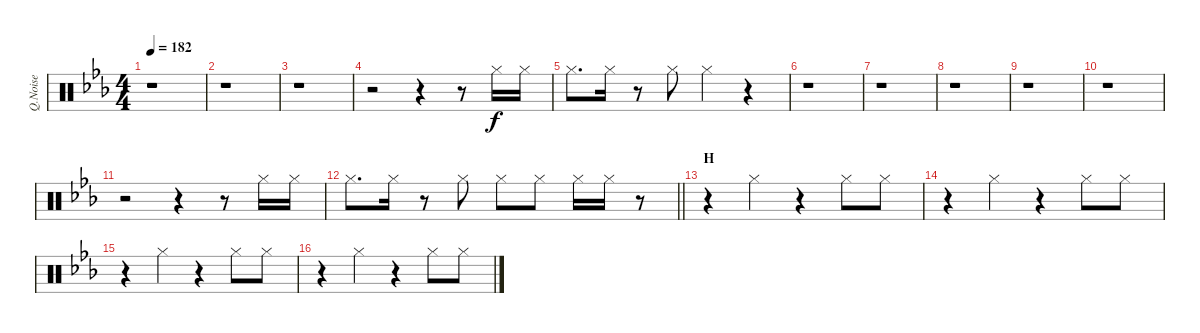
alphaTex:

\track ("Q.Noise" "Q.Noise") {instrument percussion}
\staff {score}
\articulation defaults
\ts (4 4)
\tempo 182
\clef neutral
\ks eb
r.1{dy f} |
r.1 |
r.1 |
r.2 r.4 r.8 "Hi-Hat (closed)".16 "Hi-Hat (closed)".16 |
"Hi-Hat (closed)".8{d} "Hi-Hat (closed)".16 r.8 "Hi-Hat (closed)".8 "Hi-Hat (closed)".4 r.4 |
r.1 |
r.1 |
r.1 |
r.1 |
r.1 |
r.2 r.4 r.8 "Hi-Hat (closed)".16 "Hi-Hat (closed)".16 |
\barLineRight lightlight "Hi-Hat (closed)".8{d} "Hi-Hat (closed)".16
r.8 "Hi-Hat (closed)".8 "Hi-Hat (closed)".8 "Hi-Hat (closed)".8 "Hi-Hat (closed)".16 "Hi-Hat (closed)".16 r.8 |
\section ("" "H")
r.4 "Hi-Hat (closed)".4 r.4 "Hi-Hat (closed)".8 "Hi-Hat (closed)".8 |
r.4 "Hi-Hat (closed)".4 r.4 "Hi-Hat (closed)".8 "Hi-Hat (closed)".8 |
r.4 "Hi-Hat (closed)".4 r.4 "Hi-Hat (closed)".8 "Hi-Hat (closed)".8 |
r.4 "Hi-Hat (closed)".4 r.4 "Hi-Hat (closed)".8 "Hi-Hat (closed)".8
